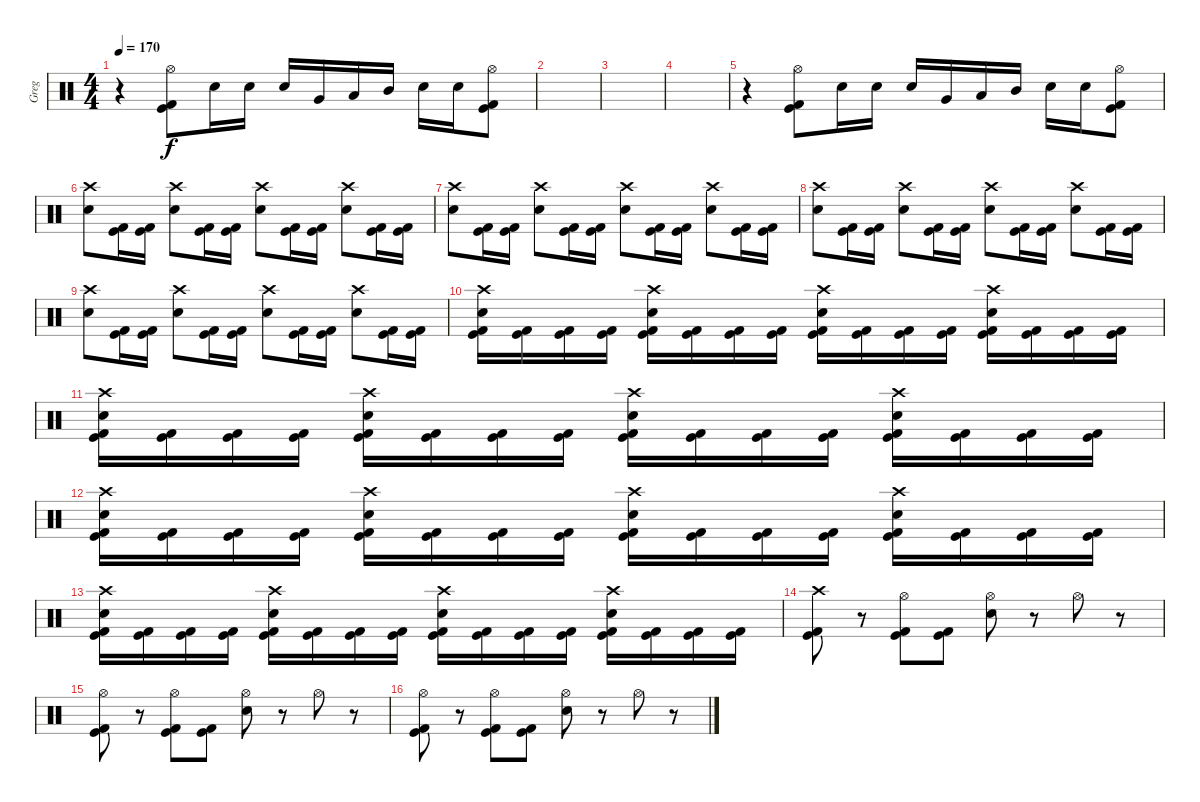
\track ("Greg" "Greg") {instrument percussion}
\staff {score}
\articulation defaults
\ts (4 4)
\tempo 170
\clef neutral
\ks c
r.4{dy f} ("Hi-Hat (open)" "Kick (hit)" "Kick (hit) 2").8 "Snare (hit) 2".16 "Snare (hit) 2".16 "Snare (hit) 2".16 "Very Low Tom (hit)".16 "Low Tom (hit)".16 "Mid Tom (hit)".16 "Snare (hit) 2".16 "Snare (hit) 2".16 ("Hi-Hat (open)" "Kick (hit)" "Kick (hit) 2").8 |
|
|
|
r.4 ("Hi-Hat (open)" "Kick (hit)" "Kick (hit) 2").8 "Snare (hit) 2".16 "Snare (hit) 2".16 "Snare (hit) 2".16 "Very Low Tom (hit)".16 "Low Tom (hit)".16 "Mid Tom (hit)".16 "Snare (hit) 2".16 "Snare (hit) 2".16 ("Hi-Hat (open)" "Kick (hit)" "Kick (hit) 2").8 |
("Crash high (hit)" "Snare (hit) 2").8 ("Kick (hit)" "Kick (hit) 2").16 ("Kick (hit)" "Kick (hit) 2").16 ("Crash high (hit)" "Snare (hit) 2").8 ("Kick (hit)" "Kick (hit) 2").16 ("Kick (hit)" "Kick (hit) 2").16 ("Crash high (hit)" "Snare (hit) 2").8 ("Kick (hit)" "Kick (hit) 2").16 ("Kick (hit)" "Kick (hit) 2").16 ("Crash high (hit)" "Snare (hit) 2").8 ("Kick (hit)" "Kick (hit) 2").16 ("Kick (hit)" "Kick (hit) 2").16 |
("Crash high (hit)" "Snare (hit) 2").8 ("Kick (hit)" "Kick (hit) 2").16 ("Kick (hit)" "Kick (hit) 2").16 ("Crash high (hit)" "Snare (hit) 2").8 ("Kick (hit)" "Kick (hit) 2").16 ("Kick (hit)" "Kick (hit) 2").16 ("Crash high (hit)" "Snare (hit) 2").8 ("Kick (hit)" "Kick (hit) 2").16 ("Kick (hit)" "Kick (hit) 2").16 ("Crash high (hit)" "Snare (hit) 2").8 ("Kick (hit)" "Kick (hit) 2").16 ("Kick (hit)" "Kick (hit) 2").16 |
("Crash high (hit)" "Snare (hit) 2").8 ("Kick (hit)" "Kick (hit) 2").16 ("Kick (hit)" "Kick (hit) 2").16 ("Crash high (hit)" "Snare (hit) 2").8 ("Kick (hit)" "Kick (hit) 2").16 ("Kick (hit)" "Kick (hit) 2").16 ("Crash high (hit)" "Snare (hit) 2").8 ("Kick (hit)" "Kick (hit) 2").16 ("Kick (hit)" "Kick (hit) 2").16 ("Crash high (hit)" "Snare (hit) 2").8 ("Kick (hit)" "Kick (hit) 2").16 ("Kick (hit)" "Kick (hit) 2").16 |
("Crash high (hit)" "Snare (hit) 2").8 ("Kick (hit)" "Kick (hit) 2").16 ("Kick (hit)" "Kick (hit) 2").16 ("Crash high (hit)" "Snare (hit) 2").8 ("Kick (hit)" "Kick (hit) 2").16 ("Kick (hit)" "Kick (hit) 2").16 ("Crash high (hit)" "Snare (hit) 2").8 ("Kick (hit)" "Kick (hit) 2").16 ("Kick (hit)" "Kick (hit) 2").16 ("Crash high (hit)" "Snare (hit) 2").8 ("Kick (hit)" "Kick (hit) 2").16 ("Kick (hit)" "Kick (hit) 2").16 |
("Crash high (hit)" "Snare (hit) 2" "Kick (hit)" "Kick (hit) 2").16 ("Kick (hit)" "Kick (hit) 2").16 ("Kick (hit)" "Kick (hit) 2").16 ("Kick (hit)" "Kick (hit) 2").16 ("Crash high (hit)" "Snare (hit) 2" "Kick (hit)" "Kick (hit) 2").16 ("Kick (hit)" "Kick (hit) 2").16 ("Kick (hit)" "Kick (hit) 2").16 ("Kick (hit)" "Kick (hit) 2").16 ("Crash high (hit)" "Snare (hit) 2" "Kick (hit)" "Kick (hit) 2").16 ("Kick (hit)" "Kick (hit) 2").16 ("Kick (hit)" "Kick (hit) 2").16 ("Kick (hit)" "Kick (hit) 2").16 ("Crash high (hit)" "Snare (hit) 2" "Kick (hit)" "Kick (hit) 2").16 ("Kick (hit)" "Kick (hit) 2").16 ("Kick (hit)" "Kick (hit) 2").16 ("Kick (hit)" "Kick (hit) 2").16 |
("Crash high (hit)" "Snare (hit) 2" "Kick (hit)" "Kick (hit) 2").16 ("Kick (hit)" "Kick (hit) 2").16 ("Kick (hit)" "Kick (hit) 2").16 ("Kick (hit)" "Kick (hit) 2").16 ("Crash high (hit)" "Snare (hit) 2" "Kick (hit)" "Kick (hit) 2").16 ("Kick (hit)" "Kick (hit) 2").16 ("Kick (hit)" "Kick (hit) 2").16 ("Kick (hit)" "Kick (hit) 2").16 ("Crash high (hit)" "Snare (hit) 2" "Kick (hit)" "Kick (hit) 2").16 ("Kick (hit)" "Kick (hit) 2").16 ("Kick (hit)" "Kick (hit) 2").16 ("Kick (hit)" "Kick (hit) 2").16 ("Crash high (hit)" "Snare (hit) 2" "Kick (hit)" "Kick (hit) 2").16 ("Kick (hit)" "Kick (hit) 2").16 ("Kick (hit)" "Kick (hit) 2").16 ("Kick (hit)" "Kick (hit) 2").16 |
("Crash high (hit)" "Snare (hit) 2" "Kick (hit)" "Kick (hit) 2").16 ("Kick (hit)" "Kick (hit) 2").16 ("Kick (hit)" "Kick (hit) 2").16 ("Kick (hit)" "Kick (hit) 2").16 ("Crash high (hit)" "Snare (hit) 2" "Kick (hit)" "Kick (hit) 2").16 ("Kick (hit)" "Kick (hit) 2").16 ("Kick (hit)" "Kick (hit) 2").16 ("Kick (hit)" "Kick (hit) 2").16 ("Crash high (hit)" "Snare (hit) 2" "Kick (hit)" "Kick (hit) 2").16 ("Kick (hit)" "Kick (hit) 2").16 ("Kick (hit)" "Kick (hit) 2").16 ("Kick (hit)" "Kick (hit) 2").16 ("Crash high (hit)" "Snare (hit) 2" "Kick (hit)" "Kick (hit) 2").16 ("Kick (hit)" "Kick (hit) 2").16 ("Kick (hit)" "Kick (hit) 2").16 ("Kick (hit)" "Kick (hit) 2").16 |
("Crash high (hit)" "Snare (hit) 2" "Kick (hit)" "Kick (hit) 2").16 ("Kick (hit)" "Kick (hit) 2").16 ("Kick (hit)" "Kick (hit) 2").16 ("Kick (hit)" "Kick (hit) 2").16 ("Crash high (hit)" "Snare (hit) 2" "Kick (hit)" "Kick (hit) 2").16 ("Kick (hit)" "Kick (hit) 2").16 ("Kick (hit)" "Kick (hit) 2").16 ("Kick (hit)" "Kick (hit) 2").16 ("Crash high (hit)" "Snare (hit) 2" "Kick (hit)" "Kick (hit) 2").16 ("Kick (hit)" "Kick (hit) 2").16 ("Kick (hit)" "Kick (hit) 2").16 ("Kick (hit)" "Kick (hit) 2").16 ("Crash high (hit)" "Snare (hit) 2" "Kick (hit)" "Kick (hit) 2").16 ("Kick (hit)" "Kick (hit) 2").16 ("Kick (hit)" "Kick (hit) 2").16 ("Kick (hit)" "Kick (hit) 2").16 |
("Crash high (hit)" "Kick (hit)" "Kick (hit) 2").8 r.8 ("Hi-Hat (open)" "Kick (hit)" "Kick (hit) 2").8 ("Kick (hit)" "Kick (hit) 2").8 ("Hi-Hat (open)" "Snare (hit) 2").8 r.8 "Hi-Hat (open)".8 r.8 |
("Hi-Hat (open)" "Kick (hit)" "Kick (hit) 2").8 r.8 ("Hi-Hat (open)" "Kick (hit)" "Kick (hit) 2").8 ("Kick (hit)" "Kick (hit) 2").8 ("Hi-Hat (open)" "Snare (hit) 2").8 r.8 "Hi-Hat (open)".8 r.8 |
("Hi-Hat (open)" "Kick (hit)" "Kick (hit) 2").8 r.8 ("Hi-Hat (open)" "Kick (hit)" "Kick (hit) 2").8 ("Kick (hit)" "Kick (hit) 2").8 ("Hi-Hat (open)" "Snare (hit) 2").8 r.8 "Hi-Hat (open)".8 r.8
